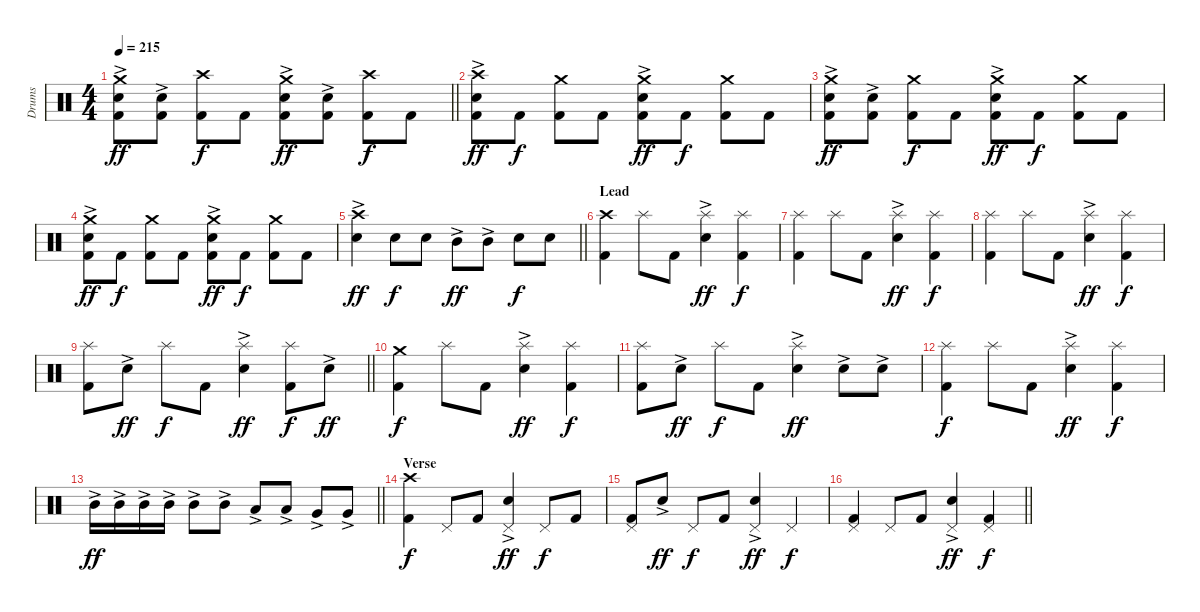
\track ("Drums" "Drums") {instrument percussion}
\staff {score}
\articulation defaults
\ts (4 4)
\tempo 215
\clef neutral
\barLineRight lightlight
\ks c
("Kick (hit) 2" "Snare (hit) 2"{ac} "Crash medium (hit)").8{dy ff} ("Kick (hit) 2" "Snare (hit) 2"{ac}).8 ("Kick (hit) 2" "Crash high (hit)").8{dy f} "Kick (hit) 2".8 ("Kick (hit) 2" "Snare (hit) 2"{ac} "Crash medium (hit)").8{dy ff} ("Kick (hit) 2" "Snare (hit) 2"{ac}).8 ("Kick (hit) 2" "Crash high (hit)").8{dy f} "Kick (hit) 2".8 |
\section ("" "")
("Kick (hit) 2" "Snare (hit) 2"{ac} "Crash high (hit)").8{dy ff} "Kick (hit) 2".8{dy f} ("Kick (hit) 2" "Crash medium (hit)").8 "Kick (hit) 2".8 ("Kick (hit) 2" "Snare (hit) 2"{ac} "Crash medium (hit)").8{dy ff} "Kick (hit) 2".8{dy f} ("Kick (hit) 2" "Crash medium (hit)").8 "Kick (hit) 2".8 |
("Kick (hit) 2" "Snare (hit) 2"{ac} "Crash medium (hit)").8{dy ff} ("Kick (hit) 2" "Snare (hit) 2"{ac}).8 ("Kick (hit) 2" "Crash medium (hit)").8{dy f} "Kick (hit) 2".8 ("Kick (hit) 2" "Snare (hit) 2"{ac} "Crash medium (hit)").8{dy ff} "Kick (hit) 2".8{dy f} ("Kick (hit) 2" "Crash medium (hit)").8 "Kick (hit) 2".8 |
("Kick (hit) 2" "Snare (hit) 2"{ac} "Crash medium (hit)").8{dy ff} "Kick (hit) 2".8{dy f} ("Kick (hit) 2" "Crash medium (hit)").8 "Kick (hit) 2".8 ("Kick (hit) 2" "Snare (hit) 2"{ac} "Crash medium (hit)").8{dy ff} "Kick (hit) 2".8{dy f} ("Kick (hit) 2" "Crash medium (hit)").8 "Kick (hit) 2".8 |
\barLineRight lightlight
("Snare (hit) 2"{ac} "Crash high (hit)").4{dy ff} "Snare (hit) 2".8{dy f} "Snare (hit) 2".8 "Mid Tom (hit)"{ac}.8{dy ff} "Mid Tom (hit)"{ac}.8 "Snare (hit) 2".8{dy f} "Snare (hit) 2".8 |
\section ("" "Lead")
("Kick (hit) 2" "Crash high (hit)").4 "Splash (hit)".8 "Kick (hit) 2".8 ("Snare (hit) 2"{ac} "Splash (hit)").4{dy ff} ("Kick (hit) 2" "Splash (hit)").4{dy f} |
("Kick (hit) 2" "Splash (hit)").4 "Splash (hit)".8 "Kick (hit) 2".8 ("Snare (hit) 2"{ac} "Splash (hit)").4{dy ff} ("Kick (hit) 2" "Splash (hit)").4{dy f} |
("Kick (hit) 2" "Splash (hit)").4 "Splash (hit)".8 "Kick (hit) 2".8 ("Snare (hit) 2"{ac} "Splash (hit)").4{dy ff} ("Kick (hit) 2" "Splash (hit)").4{dy f} |
\barLineRight lightlight
("Kick (hit) 2" "Splash (hit)").8 "Snare (hit) 2"{ac}.8{dy ff} "Splash (hit)".8{dy f} "Kick (hit) 2".8 ("Snare (hit) 2"{ac} "Splash (hit)").4{dy ff} ("Kick (hit) 2" "Splash (hit)").8{dy f} "Snare (hit) 2"{ac}.8{dy ff} |
\section ("" "")
("Kick (hit) 2" "Crash medium (hit)").4{dy f} "Splash (hit)".8 "Kick (hit) 2".8 ("Snare (hit) 2"{ac} "Splash (hit)").4{dy ff} ("Kick (hit) 2" "Splash (hit)").4{dy f} |
("Kick (hit) 2" "Splash (hit)").8 "Snare (hit) 2"{ac}.8{dy ff} "Splash (hit)".8{dy f} "Kick (hit) 2".8 ("Snare (hit) 2"{ac} "Splash (hit)").4{dy ff} "Snare (hit) 2"{ac}.8 "Snare (hit) 2"{ac}.8 |
("Kick (hit) 2" "Splash (hit)").4{dy f} "Splash (hit)".8 "Kick (hit) 2".8 ("Snare (hit) 2"{ac} "Splash (hit)").4{dy ff} ("Kick (hit) 2" "Splash (hit)").4{dy f} |
\barLineRight lightlight "Mid Tom (hit)"{ac}.16{dy ff} "Mid Tom (hit)"{ac}.16 "Mid Tom (hit)"{ac}.16 "Mid Tom (hit)"{ac}.16 "Mid Tom (hit)"{ac}.8 "Mid Tom (hit)"{ac}.8 "Low Tom (hit)"{ac}.8 "Low Tom (hit)"{ac}.8 "Very Low Tom (hit)"{ac}.8 "Very Low Tom (hit)"{ac}.8
|
\section ("" "Verse")
("Kick (hit) 2" "Crash high (hit)").4{dy f} "Pedal Hi-Hat (hit)".8 "Kick (hit) 2".8 ("Snare (hit) 2"{ac} "Pedal Hi-Hat (hit)").4{dy ff} "Pedal Hi-Hat (hit)".8{dy f} "Kick (hit) 2".8 |
("Kick (hit) 2" "Pedal Hi-Hat (hit)").8 "Snare (hit) 2"{ac}.8{dy ff} "Pedal Hi-Hat (hit)".8{dy f} "Kick (hit) 2".8 ("Snare (hit) 2"{ac} "Pedal Hi-Hat (hit)").4{dy ff} "Pedal Hi-Hat (hit)".4{dy f} |
\barLineRight lightlight
("Kick (hit) 2" "Pedal Hi-Hat (hit)").4 "Pedal Hi-Hat (hit)".8 "Kick (hit) 2".8 ("Snare (hit) 2"{ac} "Pedal Hi-Hat (hit)").4{dy ff} ("Kick (hit) 2" "Pedal Hi-Hat (hit)").4{dy f}
